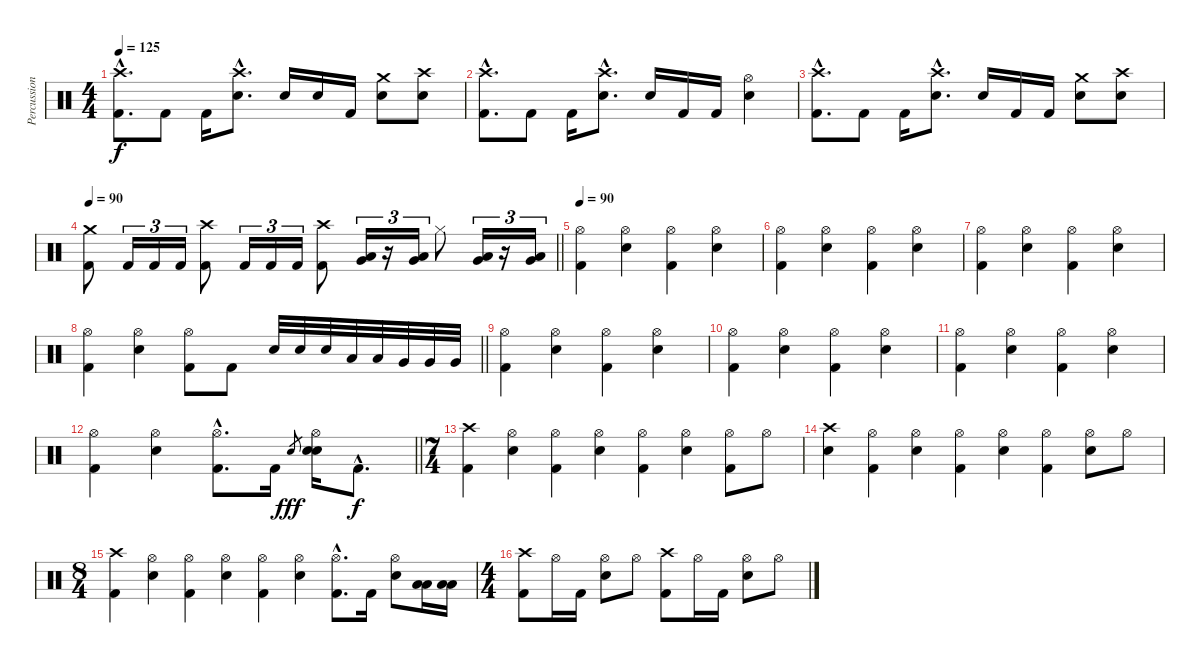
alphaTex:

\track ("Percussion" "Percussion") {instrument percussion}
\staff {score}
\articulation defaults
\ts (4 4)
\tempo 125
\clef neutral
\ks c
("Crash high (hit)"{hac} "Kick (hit) 2"{hac}).8{d dy f} "Kick (hit) 2".8 "Kick (hit) 2".16 ("Crash high (hit)"{hac} "Electric Snare (hit)"{hac}).8{d} "Electric Snare (hit)".16 "Electric Snare (hit)".16 "Kick (hit) 2".16 ("Crash medium (hit)" "Electric Snare (hit)").8 ("Crash high (hit)" "Electric Snare (hit)").8 |
("Crash high (hit)"{hac} "Kick (hit) 2"{hac}).8{d} "Kick (hit) 2".8 "Kick (hit) 2".16 ("Crash high (hit)"{hac} "Electric Snare (hit)"{hac}).8{d} "Electric Snare (hit)".16 "Kick (hit) 2".16 "Kick (hit) 2".16 ("Hi-Hat (open)" "Electric Snare (hit)").4 |
("Crash high (hit)"{hac} "Kick (hit) 2"{hac}).8{d} "Kick (hit) 2".8 "Kick (hit) 2".16 ("Crash high (hit)"{hac} "Electric Snare (hit)"{hac}).8{d} "Electric Snare (hit)".16 "Kick (hit) 2".16 "Kick (hit) 2".16 ("Crash medium (hit)" "Electric Snare (hit)").8 ("Crash high (hit)" "Electric Snare (hit)").8 |
\tempo 90
\barLineRight lightlight
("Crash medium (hit)" "Kick (hit) 2").8 "Kick (hit) 2".16{tu (3 2)} "Kick (hit) 2".16{tu (3 2)} "Kick (hit) 2".16{tu (3 2)} ("Crash high (hit)" "Kick (hit) 2").8 "Kick (hit) 2".16{tu (3 2)} "Kick (hit) 2".16{tu (3 2)} "Kick (hit) 2".16{tu (3 2)} ("Crash high (hit)" "Kick (hit) 2").8 ("Low Tom (hit)" "Very Low Tom (hit)").16{tu (3 2)} r.16{tu (3 2)} ("Low Tom (hit)" "Very Low Tom (hit)").16{tu (3 2)} "Hi-Hat (closed)".8 ("Low Floor Tom (hit)" "Very Low Tom (hit)").16{tu (3 2)} r.16{tu (3 2)} ("Low Floor Tom (hit)" "Very Low Tom (hit)").16{tu (3 2)} |
\tempo 90
("Hi-Hat (open)" "Kick (hit) 2").4 ("Hi-Hat (open)" "Electric Snare (hit)").4 ("Hi-Hat (open)" "Kick (hit) 2").4 ("Hi-Hat (open)" "Electric Snare (hit)").4 |
("Hi-Hat (open)" "Kick (hit) 2").4 ("Hi-Hat (open)" "Electric Snare (hit)").4 ("Hi-Hat (open)" "Kick (hit) 2").4 ("Hi-Hat (open)" "Electric Snare (hit)").4 |
("Hi-Hat (open)" "Kick (hit) 2").4 ("Hi-Hat (open)" "Electric Snare (hit)").4 ("Hi-Hat (open)" "Kick (hit) 2").4 ("Hi-Hat (open)" "Electric Snare (hit)").4 |
\barLineRight lightlight
("Hi-Hat (open)" "Kick (hit) 2").4 ("Hi-Hat (open)" "Electric Snare (hit)").4 ("Hi-Hat (open)" "Kick (hit) 2").8 "Kick (hit) 2".8 "Electric Snare (hit)".32 "Electric Snare (hit)".32 "Electric Snare (hit)".32 "Low Tom (hit)".32 "Low Tom (hit)".32 "Very Low Tom (hit)".32 "Very Low Tom (hit)".32 "Very Low Tom (hit)".32 |
("Hi-Hat (open)" "Kick (hit) 2").4 ("Hi-Hat (open)" "Electric Snare (hit)").4 ("Hi-Hat (open)" "Kick (hit) 2").4 ("Hi-Hat (open)" "Electric Snare (hit)").4 |
("Hi-Hat (open)" "Kick (hit) 2").4 ("Hi-Hat (open)" "Electric Snare (hit)").4 ("Hi-Hat (open)" "Kick (hit) 2").4 ("Hi-Hat (open)" "Electric Snare (hit)").4 |
("Hi-Hat (open)" "Kick (hit) 2").4 ("Hi-Hat (open)" "Electric Snare (hit)").4 ("Hi-Hat (open)" "Kick (hit) 2").4 ("Hi-Hat (open)" "Electric Snare (hit)").4 |
\barLineRight lightlight
("Hi-Hat (open)" "Kick (hit) 2").4 ("Hi-Hat (open)" "Electric Snare (hit)").4 ("Hi-Hat (open)"{hac} "Kick (hit) 2"{hac}).8{d} "Kick (hit) 2".16 "Electric Snare (hit)"{h}.8{gr dy fff} ("Hi-Hat (open)" "Electric Snare (hit)" "Electric Snare (hit)").16 "Kick (hit) 2"{hac}.8{d dy f} |
\ts (7 4)
("Crash high (hit)" "Kick (hit) 2").4 ("Hi-Hat (open)" "Electric Snare (hit)").4 ("Hi-Hat (open)" "Kick (hit) 2").4 ("Hi-Hat (open)" "Electric Snare (hit)").4 ("Hi-Hat (open)" "Kick (hit) 2").4 ("Hi-Hat (open)" "Electric Snare (hit)").4 ("Hi-Hat (open)" "Kick (hit) 2").8 "Hi-Hat (open)".8 |
("Crash high (hit)" "Electric Snare (hit)").4 ("Hi-Hat (open)" "Kick (hit) 2").4 ("Hi-Hat (open)" "Electric Snare (hit)").4 ("Hi-Hat (open)" "Kick (hit) 2").4 ("Hi-Hat (open)" "Electric Snare (hit)").4 ("Hi-Hat (open)" "Kick (hit) 2").4 ("Hi-Hat (open)" "Electric Snare (hit)").8 "Hi-Hat (open)".8 |
\ts (8 4)
("Crash high (hit)" "Kick (hit) 2").4 ("Hi-Hat (open)" "Electric Snare (hit)").4 ("Hi-Hat (open)" "Kick (hit) 2").4 ("Hi-Hat (open)" "Electric Snare (hit)").4 ("Hi-Hat (open)" "Kick (hit) 2").4 ("Hi-Hat (open)" "Electric Snare (hit)").4 ("Hi-Hat (open)"{hac} "Kick (hit) 2"{hac}).8{d} "Kick (hit) 2".16 ("Hi-Hat (open)" "Electric Snare (hit)").8 ("Low Tom (hit)" "Low Floor Tom (hit)").16 ("Low Tom (hit)" "Low Floor Tom (hit)").16 |
\ts (4 4)
("Crash high (hit)" "Kick (hit) 2").8 "Hi-Hat (open)".16 "Kick (hit) 2".16 ("Hi-Hat (open)" "Electric Snare (hit)").8 "Hi-Hat (open)".8 ("Crash high (hit)" "Kick (hit) 2").8 "Hi-Hat (open)".16 "Kick (hit) 2".16 ("Hi-Hat (open)" "Electric Snare (hit)").8 "Hi-Hat (open)".8
